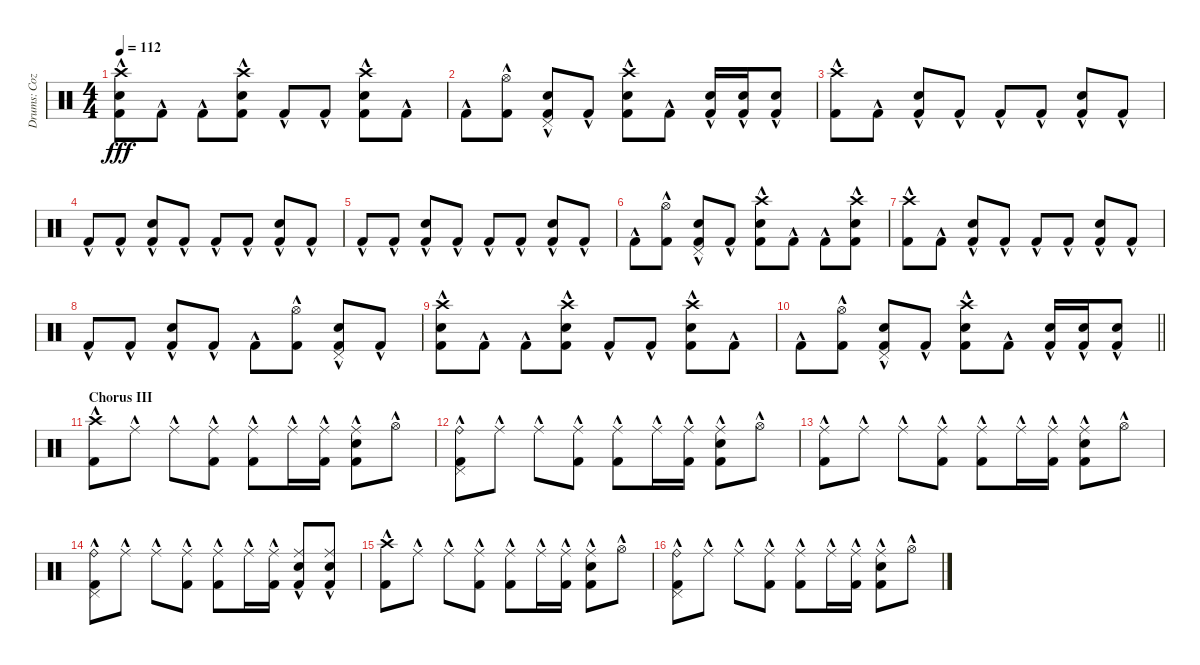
\track ("Drums: Cozy" "Drums: Coz") {instrument percussion}
\staff {score}
\articulation defaults
\ts (4 4)
\tempo 112
\clef neutral
\ks c
("Crash high (hit)"{hac} "Snare (hit) 2"{hac} "Kick (hit) 2"{hac}).8{dy fff} "Kick (hit) 2"{hac}.8 "Kick (hit) 2"{hac}.8 ("Crash high (hit)"{hac} "Snare (hit) 2"{hac} "Kick (hit) 2"{hac}).8 "Kick (hit) 2"{hac}.8 "Kick (hit) 2"{hac}.8 ("Crash high (hit)"{hac} "Snare (hit) 2"{hac} "Kick (hit) 2"{hac}).8 "Kick (hit) 2"{hac}.8 |
"Kick (hit) 2"{hac}.8 ("Hi-Hat (open)"{hac} "Kick (hit) 2"{hac}).8 ("Pedal Hi-Hat (hit)"{hac} "Snare (hit) 2"{hac} "Kick (hit) 2"{hac}).8 "Kick (hit) 2"{hac}.8 ("Crash high (hit)"{hac} "Snare (hit) 2"{hac} "Kick (hit) 2"{hac}).8 "Kick (hit) 2"{hac}.8 ("Snare (hit) 2"{hac} "Kick (hit) 2"{hac}).16 ("Snare (hit) 2"{hac} "Kick (hit) 2"{hac}).16 ("Snare (hit) 2"{hac} "Kick (hit) 2"{hac}).8 |
("Crash high (hit)"{hac} "Kick (hit) 2"{hac}).8 "Kick (hit) 2"{hac}.8 ("Snare (hit) 2"{hac} "Kick (hit) 2"{hac}).8 "Kick (hit) 2"{hac}.8 "Kick (hit) 2"{hac}.8 "Kick (hit) 2"{hac}.8 ("Snare (hit) 2"{hac} "Kick (hit) 2"{hac}).8 "Kick (hit) 2"{hac}.8 |
"Kick (hit) 2"{hac}.8 "Kick (hit) 2"{hac}.8 ("Snare (hit) 2"{hac} "Kick (hit) 2"{hac}).8 "Kick (hit) 2"{hac}.8 "Kick (hit) 2"{hac}.8 "Kick (hit) 2"{hac}.8 ("Snare (hit) 2"{hac} "Kick (hit) 2"{hac}).8 "Kick (hit) 2"{hac}.8 |
"Kick (hit) 2"{hac}.8 "Kick (hit) 2"{hac}.8 ("Snare (hit) 2"{hac} "Kick (hit) 2"{hac}).8 "Kick (hit) 2"{hac}.8 "Kick (hit) 2"{hac}.8 "Kick (hit) 2"{hac}.8 ("Snare (hit) 2"{hac} "Kick (hit) 2"{hac}).8 "Kick (hit) 2"{hac}.8 |
"Kick (hit) 2"{hac}.8 ("Hi-Hat (open)"{hac} "Kick (hit) 2"{hac}).8 ("Pedal Hi-Hat (hit)"{hac} "Snare (hit) 2"{hac} "Kick (hit) 2"{hac}).8 "Kick (hit) 2"{hac}.8 ("Crash high (hit)"{hac} "Snare (hit) 2"{hac} "Kick (hit) 2"{hac}).8 "Kick (hit) 2"{hac}.8 "Kick (hit) 2"{hac}.8 ("Crash high (hit)"{hac} "Snare (hit) 2"{hac} "Kick (hit) 2"{hac}).8 |
("Crash high (hit)"{hac} "Kick (hit) 2"{hac}).8 "Kick (hit) 2"{hac}.8 ("Snare (hit) 2"{hac} "Kick (hit) 2"{hac}).8 "Kick (hit) 2"{hac}.8 "Kick (hit) 2"{hac}.8 "Kick (hit) 2"{hac}.8 ("Snare (hit) 2"{hac} "Kick (hit) 2"{hac}).8 "Kick (hit) 2"{hac}.8 |
"Kick (hit) 2"{hac}.8 "Kick (hit) 2"{hac}.8 ("Snare (hit) 2"{hac} "Kick (hit) 2"{hac}).8 "Kick (hit) 2"{hac}.8 "Kick (hit) 2"{hac}.8 ("Hi-Hat (open)"{hac} "Kick (hit) 2"{hac}).8 ("Pedal Hi-Hat (hit)"{hac} "Snare (hit) 2"{hac} "Kick (hit) 2"{hac}).8 "Kick (hit) 2"{hac}.8 |
("Crash high (hit)"{hac} "Snare (hit) 2"{hac} "Kick (hit) 2"{hac}).8 "Kick (hit) 2"{hac}.8 "Kick (hit) 2"{hac}.8 ("Crash high (hit)"{hac} "Snare (hit) 2"{hac} "Kick (hit) 2"{hac}).8 "Kick (hit) 2"{hac}.8 "Kick (hit) 2"{hac}.8 ("Crash high (hit)"{hac} "Snare (hit) 2"{hac} "Kick (hit) 2"{hac}).8 "Kick (hit) 2"{hac}.8 |
\barLineRight lightlight "Kick (hit) 2"{hac}.8
("Hi-Hat (open)"{hac} "Kick (hit) 2"{hac}).8 ("Pedal Hi-Hat (hit)"{hac} "Snare (hit) 2"{hac} "Kick (hit) 2"{hac}).8 "Kick (hit) 2"{hac}.8 ("Crash high (hit)"{hac} "Snare (hit) 2"{hac} "Kick (hit) 2"{hac}).8 "Kick (hit) 2"{hac}.8 ("Snare (hit) 2"{hac} "Kick (hit) 2"{hac}).16 ("Snare (hit) 2"{hac} "Kick (hit) 2"{hac}).16 ("Snare (hit) 2"{hac} "Kick (hit) 2"{hac}).8 |
\section ("" "Chorus III")
("Crash high (hit)"{hac} "Kick (hit) 2"{hac}).8 "Ride (middle)"{hac}.8 "Ride (middle)"{hac}.8 ("Ride (middle)"{hac} "Kick (hit) 2"{hac}).8 ("Ride (middle)"{hac} "Kick (hit) 2"{hac}).8 "Ride (middle)"{hac}.16 ("Ride (middle)"{hac} "Kick (hit) 2"{hac}).16 ("Ride (middle)"{hac} "Electric Snare (hit)"{hac} "Kick (hit) 2"{hac}).8 "Hi-Hat (open)"{hac}.8 |
("Ride (bell)"{hac} "Pedal Hi-Hat (hit)"{hac} "Kick (hit) 2"{hac}).8 "Ride (middle)"{hac}.8 "Ride (middle)"{hac}.8 ("Ride (middle)"{hac} "Kick (hit) 2"{hac}).8 ("Ride (middle)"{hac} "Kick (hit) 2"{hac}).8 "Ride (middle)"{hac}.16 ("Ride (middle)"{hac} "Kick (hit) 2"{hac}).16 ("Ride (middle)"{hac} "Electric Snare (hit)"{hac} "Kick (hit) 2"{hac}).8 "Hi-Hat (open)"{hac}.8 |
("Ride (middle)"{hac} "Kick (hit) 2"{hac}).8 "Ride (middle)"{hac}.8 "Ride (middle)"{hac}.8 ("Ride (middle)"{hac} "Kick (hit) 2"{hac}).8 ("Ride (middle)"{hac} "Kick (hit) 2"{hac}).8 "Ride (middle)"{hac}.16 ("Ride (middle)"{hac} "Kick (hit) 2"{hac}).16 ("Ride (middle)"{hac} "Electric Snare (hit)"{hac} "Kick (hit) 2"{hac}).8 "Hi-Hat (open)"{hac}.8 |
("Ride (bell)"{hac} "Pedal Hi-Hat (hit)"{hac} "Kick (hit) 2"{hac}).8 "Ride (middle)"{hac}.8 "Ride (middle)"{hac}.8 ("Ride (middle)"{hac} "Kick (hit) 2"{hac}).8 ("Ride (middle)"{hac} "Kick (hit) 2"{hac}).8 "Ride (middle)"{hac}.16 ("Ride (middle)"{hac} "Kick (hit) 2"{hac}).16 ("Ride (middle)"{hac} "Electric Snare (hit)"{hac} "Kick (hit) 2"{hac}).8 ("Ride (middle)"{hac} "Electric Snare (hit)"{hac} "Kick (hit) 2"{hac}).8 |
("Crash high (hit)"{hac} "Kick (hit) 2"{hac}).8 "Ride (middle)"{hac}.8 "Ride (middle)"{hac}.8 ("Ride (middle)"{hac} "Kick (hit) 2"{hac}).8 ("Ride (middle)"{hac} "Kick (hit) 2"{hac}).8 "Ride (middle)"{hac}.16 ("Ride (middle)"{hac} "Kick (hit) 2"{hac}).16 ("Ride (middle)"{hac} "Electric Snare (hit)"{hac} "Kick (hit) 2"{hac}).8 "Hi-Hat (open)"{hac}.8 |
("Ride (bell)"{hac} "Pedal Hi-Hat (hit)"{hac} "Kick (hit) 2"{hac}).8 "Ride (middle)"{hac}.8 "Ride (middle)"{hac}.8 ("Ride (middle)"{hac} "Kick (hit) 2"{hac}).8 ("Ride (middle)"{hac} "Kick (hit) 2"{hac}).8 "Ride (middle)"{hac}.16 ("Ride (middle)"{hac} "Kick (hit) 2"{hac}).16 ("Ride (middle)"{hac} "Electric Snare (hit)"{hac} "Kick (hit) 2"{hac}).8 "Hi-Hat (open)"{hac}.8
